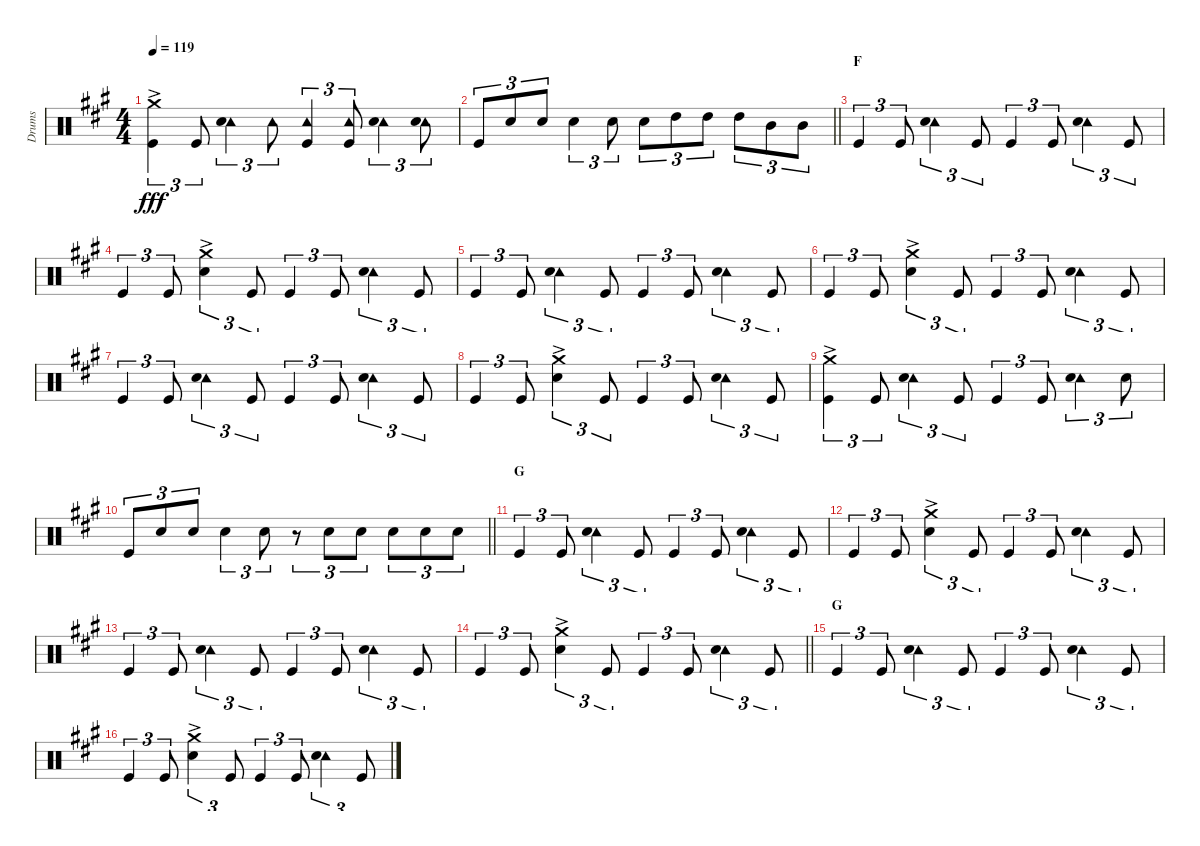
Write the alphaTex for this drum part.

\track ("Drums" "Drums") {instrument percussion}
\staff {score}
\articulation defaults
\ts (4 4)
\tempo 119
\clef neutral
\ks a
("Crash medium (hit)"{ac} "Kick (hit)").4{tu (3 2) dy fff} "Kick (hit)".8{tu (3 2)} ("Tambourine (hit)" "Snare (hit) 2").4{tu (3 2)} "Tambourine (hit)".8{tu (3 2)} ("Tambourine (hit)" "Kick (hit)").4{tu (3 2)} ("Tambourine (hit)" "Kick (hit)").8{tu (3 2)} ("Tambourine (hit)" "Snare (hit) 2").4{tu (3 2)} ("Tambourine (hit)" "Snare (hit) 2").8{tu (3 2)} |
\barLineRight lightlight "Kick (hit)".8{tu (3 2)} "Snare (hit) 2".8{tu (3 2)} "Snare (hit) 2".8{tu (3 2)} "Snare (hit) 2".4{tu (3 2)} "Snare (hit) 2".8{tu (3 2)} "Snare (hit) 2".8{tu (3 2)} "High Tom (hit)".8{tu (3 2)} "High Tom (hit)".8{tu (3 2)} "High Tom (hit)".8{tu (3 2)} "Mid Tom (hit)".8{tu (3 2)} "Mid Tom (hit)".8{tu (3 2)}
|
\section ("" "F")
"Kick (hit)".4{tu (3 2)} "Kick (hit)".8{tu (3 2)} ("Tambourine (hit)" "Snare (hit) 2").4{tu (3 2)} "Kick (hit)".8{tu (3 2)} "Kick (hit)".4{tu (3 2)} "Kick (hit)".8{tu (3 2)} ("Tambourine (hit)" "Snare (hit) 2").4{tu (3 2)} "Kick (hit)".8{tu (3 2)} |
"Kick (hit)".4{tu (3 2)} "Kick (hit)".8{tu (3 2)} ("Crash medium (hit)"{ac} "Snare (hit) 2").4{tu (3 2)} "Kick (hit)".8{tu (3 2)} "Kick (hit)".4{tu (3 2)} "Kick (hit)".8{tu (3 2)} ("Tambourine (hit)" "Snare (hit) 2").4{tu (3 2)} "Kick (hit)".8{tu (3 2)} |
"Kick (hit)".4{tu (3 2)} "Kick (hit)".8{tu (3 2)} ("Tambourine (hit)" "Snare (hit) 2").4{tu (3 2)} "Kick (hit)".8{tu (3 2)} "Kick (hit)".4{tu (3 2)} "Kick (hit)".8{tu (3 2)} ("Tambourine (hit)" "Snare (hit) 2").4{tu (3 2)} "Kick (hit)".8{tu (3 2)} |
"Kick (hit)".4{tu (3 2)} "Kick (hit)".8{tu (3 2)} ("Crash medium (hit)"{ac} "Snare (hit) 2").4{tu (3 2)} "Kick (hit)".8{tu (3 2)} "Kick (hit)".4{tu (3 2)} "Kick (hit)".8{tu (3 2)} ("Tambourine (hit)" "Snare (hit) 2").4{tu (3 2)} "Kick (hit)".8{tu (3 2)} |
"Kick (hit)".4{tu (3 2)} "Kick (hit)".8{tu (3 2)} ("Tambourine (hit)" "Snare (hit) 2").4{tu (3 2)} "Kick (hit)".8{tu (3 2)} "Kick (hit)".4{tu (3 2)} "Kick (hit)".8{tu (3 2)} ("Tambourine (hit)" "Snare (hit) 2").4{tu (3 2)} "Kick (hit)".8{tu (3 2)} |
"Kick (hit)".4{tu (3 2)} "Kick (hit)".8{tu (3 2)} ("Crash medium (hit)"{ac} "Snare (hit) 2").4{tu (3 2)} "Kick (hit)".8{tu (3 2)} "Kick (hit)".4{tu (3 2)} "Kick (hit)".8{tu (3 2)} ("Tambourine (hit)" "Snare (hit) 2").4{tu (3 2)} "Kick (hit)".8{tu (3 2)} |
("Crash medium (hit)"{ac} "Kick (hit)").4{tu (3 2)} "Kick (hit)".8{tu (3 2)} ("Tambourine (hit)" "Snare (hit) 2").4{tu (3 2)} "Kick (hit)".8{tu (3 2)} "Kick (hit)".4{tu (3 2)} "Kick (hit)".8{tu (3 2)} ("Tambourine (hit)" "Snare (hit) 2").4{tu (3 2)} "Snare (hit) 2".8{tu (3 2)} |
\barLineRight lightlight "Kick (hit)".8{tu (3 2)} "Snare (hit) 2".8{tu (3 2)} "Snare (hit) 2".8{tu (3 2)} "Snare (hit) 2".4{tu (3 2)} "Snare (hit) 2".8{tu (3 2)}
r.8{tu (3 2)} "Snare (hit) 2".8{tu (3 2)} "Snare (hit) 2".8{tu (3 2)} "Snare (hit) 2".8{tu (3 2)} "Snare (hit) 2".8{tu (3 2)} "Snare (hit) 2".8{tu (3 2)} |
\section ("" "G")
"Kick (hit)".4{tu (3 2)} "Kick (hit)".8{tu (3 2)} ("Tambourine (hit)" "Snare (hit) 2").4{tu (3 2)} "Kick (hit)".8{tu (3 2)} "Kick (hit)".4{tu (3 2)} "Kick (hit)".8{tu (3 2)} ("Tambourine (hit)" "Snare (hit) 2").4{tu (3 2)} "Kick (hit)".8{tu (3 2)} |
"Kick (hit)".4{tu (3 2)} "Kick (hit)".8{tu (3 2)} ("Crash medium (hit)"{ac} "Snare (hit) 2").4{tu (3 2)} "Kick (hit)".8{tu (3 2)} "Kick (hit)".4{tu (3 2)} "Kick (hit)".8{tu (3 2)} ("Tambourine (hit)" "Snare (hit) 2").4{tu (3 2)} "Kick (hit)".8{tu (3 2)} |
"Kick (hit)".4{tu (3 2)} "Kick (hit)".8{tu (3 2)} ("Tambourine (hit)" "Snare (hit) 2").4{tu (3 2)} "Kick (hit)".8{tu (3 2)} "Kick (hit)".4{tu (3 2)} "Kick (hit)".8{tu (3 2)} ("Tambourine (hit)" "Snare (hit) 2").4{tu (3 2)} "Kick (hit)".8{tu (3 2)} |
\barLineRight lightlight "Kick (hit)".4{tu (3 2)} "Kick (hit)".8{tu (3 2)}
("Crash medium (hit)"{ac} "Snare (hit) 2").4{tu (3 2)} "Kick (hit)".8{tu (3 2)} "Kick (hit)".4{tu (3 2)} "Kick (hit)".8{tu (3 2)} ("Tambourine (hit)" "Snare (hit) 2").4{tu (3 2)} "Kick (hit)".8{tu (3 2)} |
\section ("" "G")
"Kick (hit)".4{tu (3 2)} "Kick (hit)".8{tu (3 2)} ("Tambourine (hit)" "Snare (hit) 2").4{tu (3 2)} "Kick (hit)".8{tu (3 2)} "Kick (hit)".4{tu (3 2)} "Kick (hit)".8{tu (3 2)} ("Tambourine (hit)" "Snare (hit) 2").4{tu (3 2)} "Kick (hit)".8{tu (3 2)} |
"Kick (hit)".4{tu (3 2)} "Kick (hit)".8{tu (3 2)} ("Crash medium (hit)"{ac} "Snare (hit) 2").4{tu (3 2)} "Kick (hit)".8{tu (3 2)} "Kick (hit)".4{tu (3 2)} "Kick (hit)".8{tu (3 2)} ("Tambourine (hit)" "Snare (hit) 2").4{tu (3 2)} "Kick (hit)".8{tu (3 2)}
